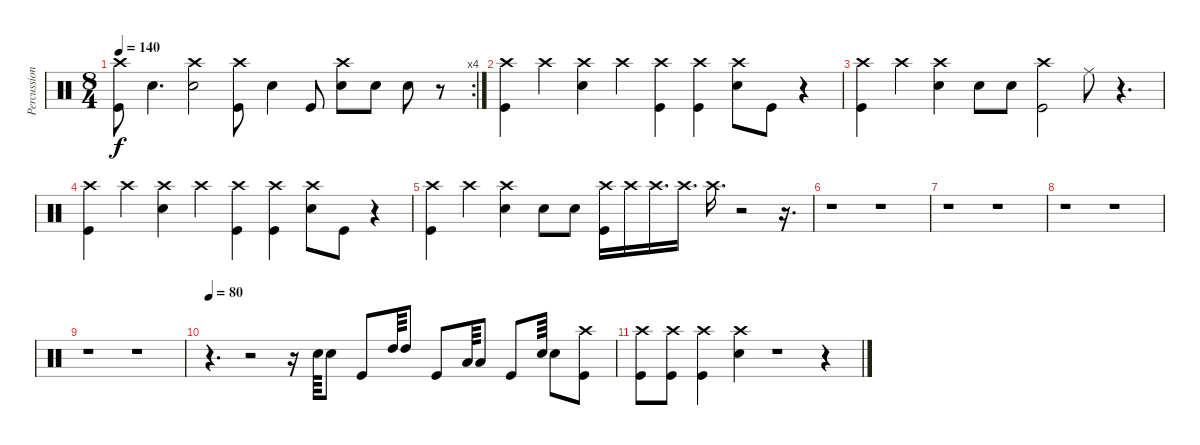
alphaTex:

\track ("Percussion" "Percussion") {instrument percussion}
\staff {score}
\articulation defaults
\rc 4
\ts (8 4)
\tempo 140
\clef neutral
\ks c
("Crash high (hit)" "Kick (hit)").8{dy f} "Electric Snare (hit)".4{d} ("Crash high (hit)" "Electric Snare (hit)").2 ("Crash high (hit)" "Kick (hit)").8 "Electric Snare (hit)".4 "Kick (hit)".8 ("Crash high (hit)" "Electric Snare (hit)").8 "Electric Snare (hit)".8 "Electric Snare (hit)".8 r.8 |
("Crash high (hit)" "Kick (hit)").4 "Crash high (hit)".4 ("Crash high (hit)" "Electric Snare (hit)").4 "Crash high (hit)".4 ("Crash high (hit)" "Kick (hit)").4 ("Crash high (hit)" "Kick (hit)").4 ("Crash high (hit)" "Electric Snare (hit)").8 "Kick (hit)".8 r.4 |
("Crash high (hit)" "Kick (hit)").4 "Crash high (hit)".4 ("Crash high (hit)" "Electric Snare (hit)").4 "Electric Snare (hit)".8 "Electric Snare (hit)".8 ("Crash high (hit)" "Kick (hit)").2 "Ride (middle)".8 r.4{d} |
("Crash high (hit)" "Kick (hit)").4 "Crash high (hit)".4 ("Crash high (hit)" "Electric Snare (hit)").4 "Crash high (hit)".4 ("Crash high (hit)" "Kick (hit)").4 ("Crash high (hit)" "Kick (hit)").4 ("Crash high (hit)" "Electric Snare (hit)").8 "Kick (hit)".8 r.4 |
("Crash high (hit)" "Kick (hit)").4 "Crash high (hit)".4 ("Crash high (hit)" "Electric Snare (hit)").4 "Electric Snare (hit)".8 "Electric Snare (hit)".8 ("Crash high (hit)" "Kick (hit)").16 "Crash high (hit)".16 "Crash high (hit)".16{d} "Crash high (hit)".16{d} "Crash high (hit)".16{d} r.2 r.16{d} |
r.1 r.1 |
r.1 r.1 |
r.1 r.1 |
r.1 r.1 |
\tempo 80
r.4{d} r.2 r.16 "Electric Snare (hit)".64 "Electric Snare (hit)".8 "Kick (hit)".8 "High Tom (hit)".64 "High Tom (hit)".8 "Kick (hit)".8 "Low Tom (hit)".64 "Low Tom (hit)".8 "Kick (hit)".8 "Electric Snare (hit)".64 "Electric Snare (hit)".8 ("Crash high (hit)" "Kick (hit)").8 |
("Crash high (hit)" "Kick (hit)").8 ("Crash high (hit)" "Kick (hit)").8 ("Crash high (hit)" "Kick (hit)").4 ("Crash high (hit)" "Electric Snare (hit)").4 r.1 r.4
